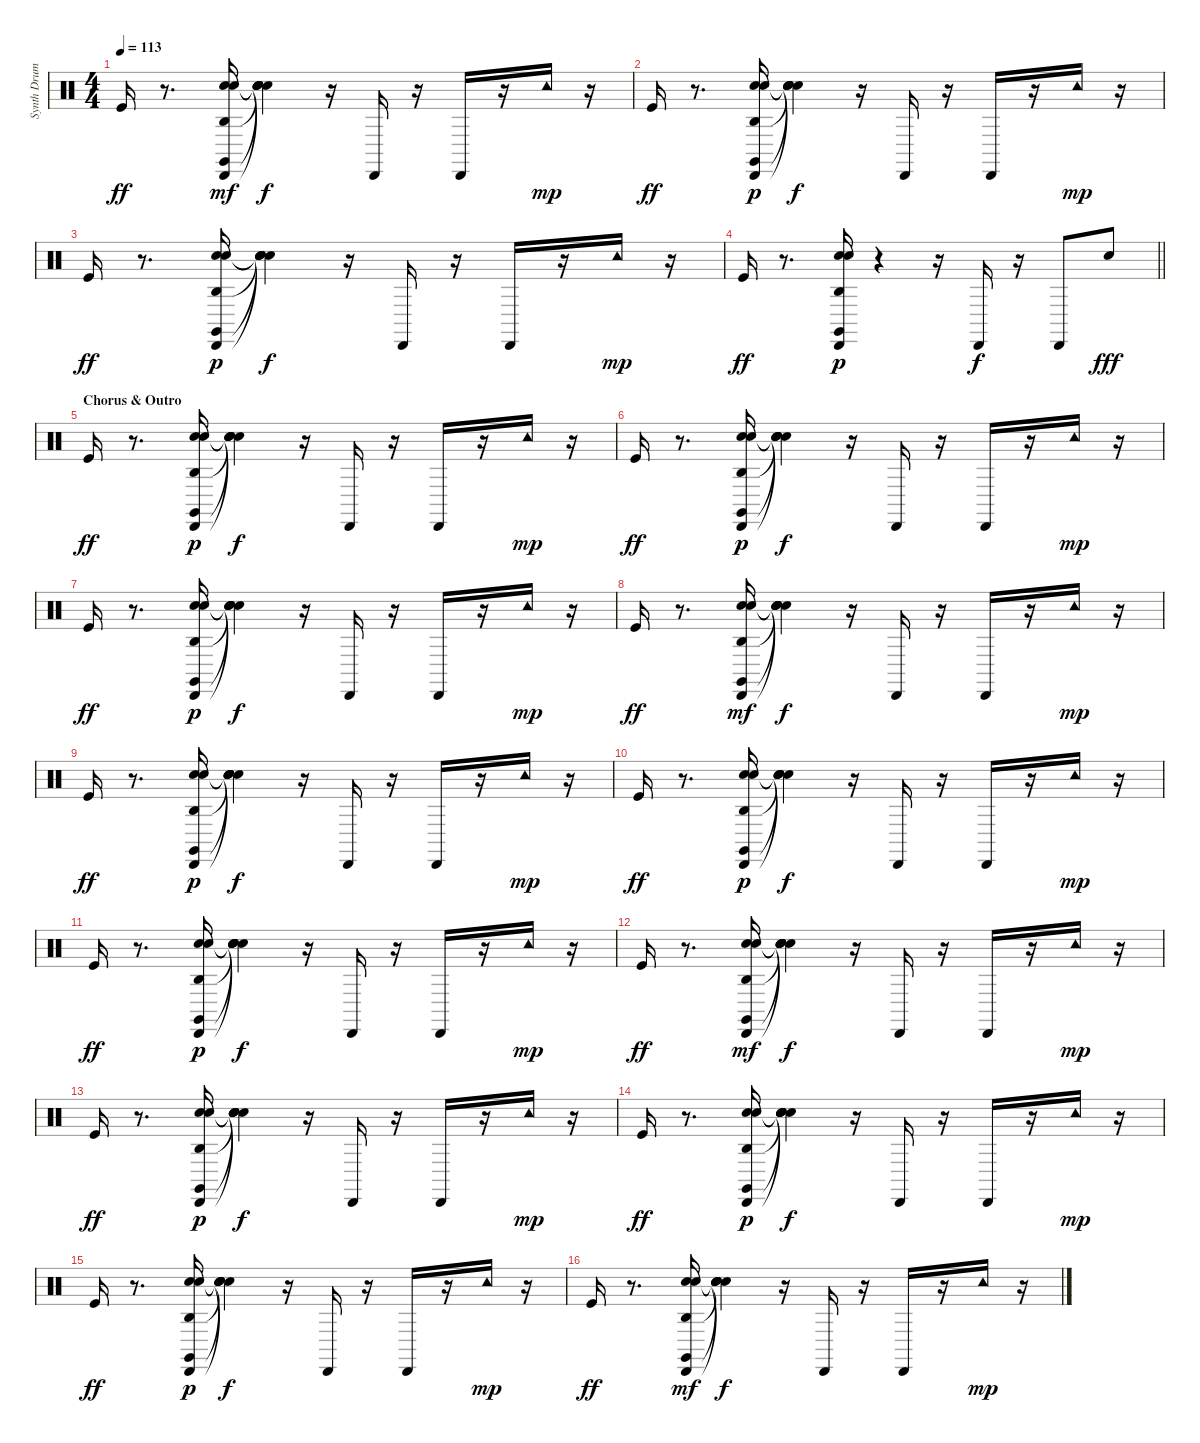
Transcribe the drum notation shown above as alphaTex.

\track ("Synth Drums" "Synth Drum") {instrument percussion}
\staff {score}
\articulation defaults
\ts (4 4)
\tempo 113
\clef neutral
\ks c "Kick (hit)".16{dy ff}
r.8{d} ("Agogo high (hit)" "Claves (hit)" "Cabasa (hit)" "Electric Snare (hit)" "Snare (hit) 2").16{dy mf} ("Snare (hit)"{t} "Snare (hit)"{t} "Snare (hit)"{t} "Snare (hit)"{t} "Snare (hit)"{t}).4{dy f} r.16 "Cabasa (hit)".16 r.16 "Cabasa (hit)".16 r.16 "Tambourine (hit)".16{dy mp} r.16 |
"Kick (hit)".16{dy ff} r.8{d} ("Cabasa (hit)" "Claves (hit)" "Agogo high (hit)" "Electric Snare (hit)" "Snare (hit) 2").16{dy p} ("Snare (hit)"{t} "Snare (hit)"{t} "Snare (hit)"{t} "Snare (hit)"{t} "Snare (hit)"{t}).4{dy f} r.16 "Cabasa (hit)".16 r.16 "Cabasa (hit)".16 r.16 "Tambourine (hit)".16{dy mp} r.16 |
"Kick (hit)".16{dy ff} r.8{d} ("Cabasa (hit)" "Claves (hit)" "Agogo high (hit)" "Electric Snare (hit)" "Snare (hit) 2").16{dy p} ("Snare (hit)"{t} "Snare (hit)"{t} "Snare (hit)"{t} "Snare (hit)"{t} "Snare (hit)"{t}).4{dy f} r.16 "Cabasa (hit)".16 r.16 "Cabasa (hit)".16 r.16 "Tambourine (hit)".16{dy mp} r.16 |
\barLineRight lightlight "Kick (hit)".16{dy ff}
r.8{d} ("Cabasa (hit)" "Claves (hit)" "Agogo high (hit)" "Electric Snare (hit)" "Snare (hit) 2").16{dy p} r.4 r.16 "Cabasa (hit)".16{dy f} r.16 "Cabasa (hit)".8 "Electric Snare (hit)".8{dy fff} |
\section ("" "Chorus & Outro")
"Kick (hit)".16{dy ff} r.8{d} ("Cabasa (hit)" "Claves (hit)" "Agogo high (hit)" "Electric Snare (hit)" "Snare (hit) 2").16{dy p} ("Snare (hit)"{t} "Snare (hit)"{t} "Snare (hit)"{t} "Snare (hit)"{t} "Snare (hit)"{t}).4{dy f} r.16 "Cabasa (hit)".16 r.16 "Cabasa (hit)".16 r.16 "Tambourine (hit)".16{dy mp} r.16 |
"Kick (hit)".16{dy ff} r.8{d} ("Cabasa (hit)" "Claves (hit)" "Agogo high (hit)" "Electric Snare (hit)" "Snare (hit) 2").16{dy p} ("Snare (hit)"{t} "Snare (hit)"{t} "Snare (hit)"{t} "Snare (hit)"{t} "Snare (hit)"{t}).4{dy f} r.16 "Cabasa (hit)".16 r.16 "Cabasa (hit)".16 r.16 "Tambourine (hit)".16{dy mp} r.16 |
"Kick (hit)".16{dy ff} r.8{d} ("Cabasa (hit)" "Claves (hit)" "Agogo high (hit)" "Electric Snare (hit)" "Snare (hit) 2").16{dy p} ("Snare (hit)"{t} "Snare (hit)"{t} "Snare (hit)"{t} "Snare (hit)"{t} "Snare (hit)"{t}).4{dy f} r.16 "Cabasa (hit)".16 r.16 "Cabasa (hit)".16 r.16 "Tambourine (hit)".16{dy mp} r.16 |
"Kick (hit)".16{dy ff} r.8{d} ("Agogo high (hit)" "Claves (hit)" "Cabasa (hit)" "Electric Snare (hit)" "Snare (hit) 2").16{dy mf} ("Snare (hit)"{t} "Snare (hit)"{t} "Snare (hit)"{t} "Snare (hit)"{t} "Snare (hit)"{t}).4{dy f} r.16 "Cabasa (hit)".16 r.16 "Cabasa (hit)".16 r.16 "Tambourine (hit)".16{dy mp} r.16 |
"Kick (hit)".16{dy ff} r.8{d} ("Cabasa (hit)" "Claves (hit)" "Agogo high (hit)" "Electric Snare (hit)" "Snare (hit) 2").16{dy p} ("Snare (hit)"{t} "Snare (hit)"{t} "Snare (hit)"{t} "Snare (hit)"{t} "Snare (hit)"{t}).4{dy f} r.16 "Cabasa (hit)".16 r.16 "Cabasa (hit)".16 r.16 "Tambourine (hit)".16{dy mp} r.16 |
"Kick (hit)".16{dy ff} r.8{d} ("Cabasa (hit)" "Claves (hit)" "Agogo high (hit)" "Electric Snare (hit)" "Snare (hit) 2").16{dy p} ("Snare (hit)"{t} "Snare (hit)"{t} "Snare (hit)"{t} "Snare (hit)"{t} "Snare (hit)"{t}).4{dy f} r.16 "Cabasa (hit)".16 r.16 "Cabasa (hit)".16 r.16 "Tambourine (hit)".16{dy mp} r.16 |
"Kick (hit)".16{dy ff} r.8{d} ("Cabasa (hit)" "Claves (hit)" "Agogo high (hit)" "Electric Snare (hit)" "Snare (hit) 2").16{dy p} ("Snare (hit)"{t} "Snare (hit)"{t} "Snare (hit)"{t} "Snare (hit)"{t} "Snare (hit)"{t}).4{dy f} r.16 "Cabasa (hit)".16 r.16 "Cabasa (hit)".16 r.16 "Tambourine (hit)".16{dy mp} r.16 |
"Kick (hit)".16{dy ff} r.8{d} ("Agogo high (hit)" "Claves (hit)" "Cabasa (hit)" "Electric Snare (hit)" "Snare (hit) 2").16{dy mf} ("Snare (hit)"{t} "Snare (hit)"{t} "Snare (hit)"{t} "Snare (hit)"{t} "Snare (hit)"{t}).4{dy f} r.16 "Cabasa (hit)".16 r.16 "Cabasa (hit)".16 r.16 "Tambourine (hit)".16{dy mp} r.16 |
"Kick (hit)".16{dy ff} r.8{d} ("Cabasa (hit)" "Claves (hit)" "Agogo high (hit)" "Electric Snare (hit)" "Snare (hit) 2").16{dy p} ("Snare (hit)"{t} "Snare (hit)"{t} "Snare (hit)"{t} "Snare (hit)"{t} "Snare (hit)"{t}).4{dy f} r.16 "Cabasa (hit)".16 r.16 "Cabasa (hit)".16 r.16 "Tambourine (hit)".16{dy mp} r.16 |
"Kick (hit)".16{dy ff} r.8{d} ("Cabasa (hit)" "Claves (hit)" "Agogo high (hit)" "Electric Snare (hit)" "Snare (hit) 2").16{dy p} ("Snare (hit)"{t} "Snare (hit)"{t} "Snare (hit)"{t} "Snare (hit)"{t} "Snare (hit)"{t}).4{dy f} r.16 "Cabasa (hit)".16 r.16 "Cabasa (hit)".16 r.16 "Tambourine (hit)".16{dy mp} r.16 |
"Kick (hit)".16{dy ff} r.8{d} ("Cabasa (hit)" "Claves (hit)" "Agogo high (hit)" "Electric Snare (hit)" "Snare (hit) 2").16{dy p} ("Snare (hit)"{t} "Snare (hit)"{t} "Snare (hit)"{t} "Snare (hit)"{t} "Snare (hit)"{t}).4{dy f} r.16 "Cabasa (hit)".16 r.16 "Cabasa (hit)".16 r.16 "Tambourine (hit)".16{dy mp} r.16 |
"Kick (hit)".16{dy ff} r.8{d} ("Agogo high (hit)" "Claves (hit)" "Cabasa (hit)" "Electric Snare (hit)" "Snare (hit) 2").16{dy mf} ("Snare (hit)"{t} "Snare (hit)"{t} "Snare (hit)"{t} "Snare (hit)"{t} "Snare (hit)"{t}).4{dy f} r.16 "Cabasa (hit)".16 r.16 "Cabasa (hit)".16 r.16 "Tambourine (hit)".16{dy mp} r.16
